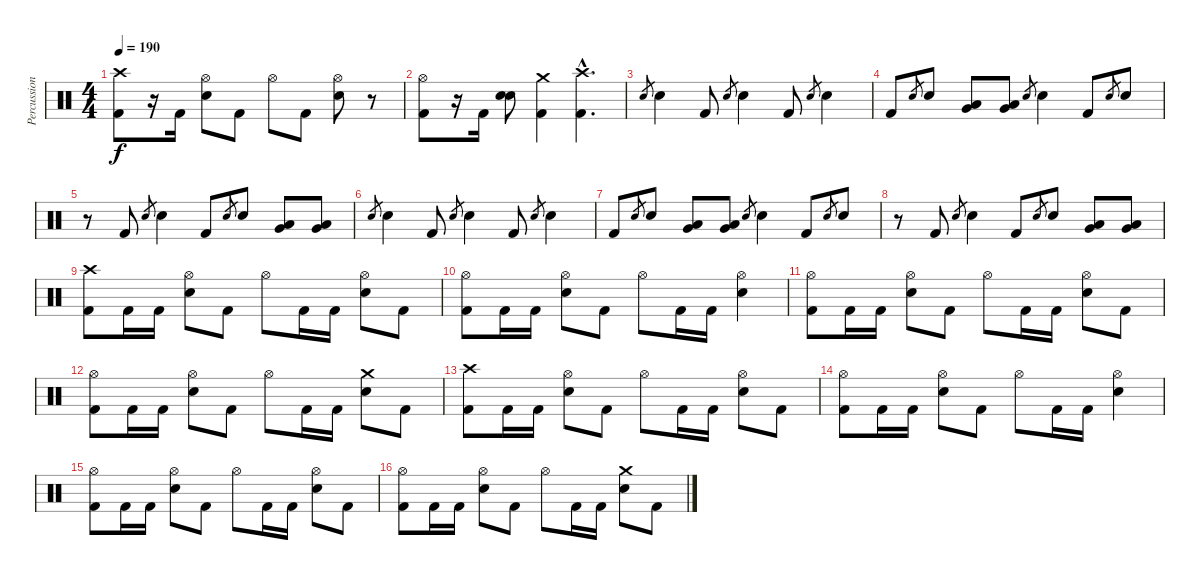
\track ("Percussion" "Percussion") {instrument percussion}
\staff {score}
\articulation defaults
\ts (4 4)
\tempo 190
\clef neutral
\ks c
("Crash high (hit)" "Kick (hit) 2").8{dy f} r.16 "Kick (hit) 2".16 ("Hi-Hat (open)" "Snare (hit) 2").8 "Kick (hit) 2".8 "Hi-Hat (open)".8 "Kick (hit) 2".8 ("Hi-Hat (open)" "Snare (hit) 2").8 r.8 |
("Hi-Hat (open)" "Kick (hit) 2").8 r.16 "Kick (hit) 2".16 ("Snare (hit) 2" "Snare (hit) 2").8 ("Crash medium (hit)" "Kick (hit) 2").4 ("Crash high (hit)"{hac} "Kick (hit) 2"{hac}).4{d} |
"Snare (hit) 2".8{gr} "Snare (hit) 2".4 "Kick (hit) 2".8 "Snare (hit) 2".8{gr} "Snare (hit) 2".4 "Kick (hit) 2".8 "Snare (hit) 2".8{gr} "Snare (hit) 2".4 |
"Kick (hit) 2".8 "Snare (hit) 2".8{gr} "Snare (hit) 2".8 ("Low Tom (hit)" "Very Low Tom (hit)").8 ("Low Tom (hit)" "Very Low Tom (hit)").8 "Snare (hit) 2".8{gr} "Snare (hit) 2".4 "Kick (hit) 2".8 "Snare (hit) 2".8{gr} "Snare (hit) 2".8 |
r.8 "Kick (hit) 2".8 "Snare (hit) 2".8{gr} "Snare (hit) 2".4 "Kick (hit) 2".8 "Snare (hit) 2".8{gr} "Snare (hit) 2".8 ("Low Tom (hit)" "Very Low Tom (hit)").8 ("Low Tom (hit)" "Very Low Tom (hit)").8 |
"Snare (hit) 2".8{gr} "Snare (hit) 2".4 "Kick (hit) 2".8 "Snare (hit) 2".8{gr} "Snare (hit) 2".4 "Kick (hit) 2".8 "Snare (hit) 2".8{gr} "Snare (hit) 2".4 |
"Kick (hit) 2".8 "Snare (hit) 2".8{gr} "Snare (hit) 2".8 ("Low Tom (hit)" "Very Low Tom (hit)").8 ("Low Tom (hit)" "Very Low Tom (hit)").8 "Snare (hit) 2".8{gr} "Snare (hit) 2".4 "Kick (hit) 2".8 "Snare (hit) 2".8{gr} "Snare (hit) 2".8 |
r.8 "Kick (hit) 2".8 "Snare (hit) 2".8{gr} "Snare (hit) 2".4 "Kick (hit) 2".8 "Snare (hit) 2".8{gr} "Snare (hit) 2".8 ("Low Tom (hit)" "Very Low Tom (hit)").8 ("Low Tom (hit)" "Very Low Tom (hit)").8 |
("Crash high (hit)" "Kick (hit) 2").8 "Kick (hit) 2".16 "Kick (hit) 2".16 ("Hi-Hat (open)" "Snare (hit) 2").8 "Kick (hit) 2".8 "Hi-Hat (open)".8 "Kick (hit) 2".16 "Kick (hit) 2".16 ("Hi-Hat (open)" "Snare (hit) 2").8 "Kick (hit) 2".8 |
("Hi-Hat (open)" "Kick (hit) 2").8 "Kick (hit) 2".16 "Kick (hit) 2".16 ("Hi-Hat (open)" "Snare (hit) 2").8 "Kick (hit) 2".8 "Hi-Hat (open)".8 "Kick (hit) 2".16 "Kick (hit) 2".16 ("Hi-Hat (open)" "Snare (hit) 2").4 |
("Hi-Hat (open)" "Kick (hit) 2").8 "Kick (hit) 2".16 "Kick (hit) 2".16 ("Hi-Hat (open)" "Snare (hit) 2").8 "Kick (hit) 2".8 "Hi-Hat (open)".8 "Kick (hit) 2".16 "Kick (hit) 2".16 ("Hi-Hat (open)" "Snare (hit) 2").8 "Kick (hit) 2".8 |
("Hi-Hat (open)" "Kick (hit) 2").8 "Kick (hit) 2".16 "Kick (hit) 2".16 ("Hi-Hat (open)" "Snare (hit) 2").8 "Kick (hit) 2".8 "Hi-Hat (open)".8 "Kick (hit) 2".16 "Kick (hit) 2".16 ("Crash medium (hit)" "Snare (hit) 2").8 "Kick (hit) 2".8 |
("Crash high (hit)" "Kick (hit) 2").8 "Kick (hit) 2".16 "Kick (hit) 2".16 ("Hi-Hat (open)" "Snare (hit) 2").8 "Kick (hit) 2".8 "Hi-Hat (open)".8 "Kick (hit) 2".16 "Kick (hit) 2".16 ("Hi-Hat (open)" "Snare (hit) 2").8 "Kick (hit) 2".8 |
("Hi-Hat (open)" "Kick (hit) 2").8 "Kick (hit) 2".16 "Kick (hit) 2".16 ("Hi-Hat (open)" "Snare (hit) 2").8 "Kick (hit) 2".8 "Hi-Hat (open)".8 "Kick (hit) 2".16 "Kick (hit) 2".16 ("Hi-Hat (open)" "Snare (hit) 2").4 |
("Hi-Hat (open)" "Kick (hit) 2").8 "Kick (hit) 2".16 "Kick (hit) 2".16 ("Hi-Hat (open)" "Snare (hit) 2").8 "Kick (hit) 2".8 "Hi-Hat (open)".8 "Kick (hit) 2".16 "Kick (hit) 2".16 ("Hi-Hat (open)" "Snare (hit) 2").8 "Kick (hit) 2".8 |
("Hi-Hat (open)" "Kick (hit) 2").8 "Kick (hit) 2".16 "Kick (hit) 2".16 ("Hi-Hat (open)" "Snare (hit) 2").8 "Kick (hit) 2".8 "Hi-Hat (open)".8 "Kick (hit) 2".16 "Kick (hit) 2".16 ("Crash medium (hit)" "Snare (hit) 2").8 "Kick (hit) 2".8
